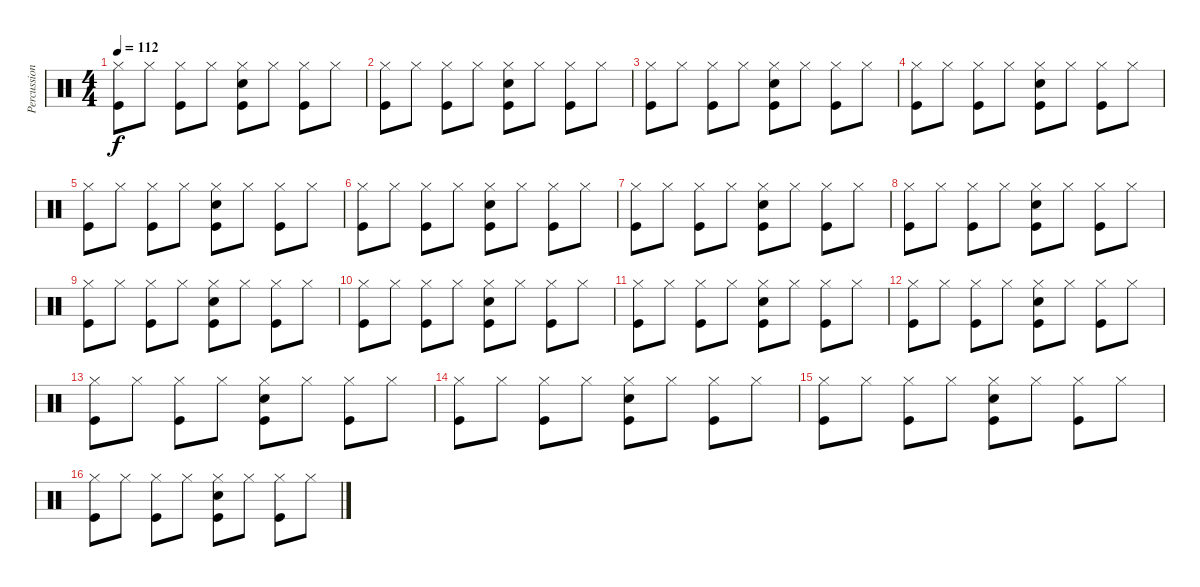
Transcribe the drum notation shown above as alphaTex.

\track ("Percussions" "Percussion") {instrument percussion}
\staff {score}
\articulation defaults
\ts (4 4)
\tempo 112
\clef neutral
\ks c
("Hi-Hat (closed)" "Kick (hit)").8{dy f} "Hi-Hat (closed)".8 ("Hi-Hat (closed)" "Kick (hit)").8 "Hi-Hat (closed)".8 ("Hi-Hat (closed)" "Snare (hit) 2" "Kick (hit)").8 "Hi-Hat (closed)".8 ("Hi-Hat (closed)" "Kick (hit)").8 "Hi-Hat (closed)".8 |
("Hi-Hat (closed)" "Kick (hit)").8 "Hi-Hat (closed)".8 ("Hi-Hat (closed)" "Kick (hit)").8 "Hi-Hat (closed)".8 ("Hi-Hat (closed)" "Snare (hit) 2" "Kick (hit)").8 "Hi-Hat (closed)".8 ("Hi-Hat (closed)" "Kick (hit)").8 "Hi-Hat (closed)".8 |
("Hi-Hat (closed)" "Kick (hit)").8 "Hi-Hat (closed)".8 ("Hi-Hat (closed)" "Kick (hit)").8 "Hi-Hat (closed)".8 ("Hi-Hat (closed)" "Snare (hit) 2" "Kick (hit)").8 "Hi-Hat (closed)".8 ("Hi-Hat (closed)" "Kick (hit)").8 "Hi-Hat (closed)".8 |
("Hi-Hat (closed)" "Kick (hit)").8 "Hi-Hat (closed)".8 ("Hi-Hat (closed)" "Kick (hit)").8 "Hi-Hat (closed)".8 ("Hi-Hat (closed)" "Snare (hit) 2" "Kick (hit)").8 "Hi-Hat (closed)".8 ("Hi-Hat (closed)" "Kick (hit)").8 "Hi-Hat (closed)".8 |
("Hi-Hat (closed)" "Kick (hit)").8 "Hi-Hat (closed)".8 ("Hi-Hat (closed)" "Kick (hit)").8 "Hi-Hat (closed)".8 ("Hi-Hat (closed)" "Snare (hit) 2" "Kick (hit)").8 "Hi-Hat (closed)".8 ("Hi-Hat (closed)" "Kick (hit)").8 "Hi-Hat (closed)".8 |
("Hi-Hat (closed)" "Kick (hit)").8 "Hi-Hat (closed)".8 ("Hi-Hat (closed)" "Kick (hit)").8 "Hi-Hat (closed)".8 ("Hi-Hat (closed)" "Snare (hit) 2" "Kick (hit)").8 "Hi-Hat (closed)".8 ("Hi-Hat (closed)" "Kick (hit)").8 "Hi-Hat (closed)".8 |
("Hi-Hat (closed)" "Kick (hit)").8 "Hi-Hat (closed)".8 ("Hi-Hat (closed)" "Kick (hit)").8 "Hi-Hat (closed)".8 ("Hi-Hat (closed)" "Snare (hit) 2" "Kick (hit)").8 "Hi-Hat (closed)".8 ("Hi-Hat (closed)" "Kick (hit)").8 "Hi-Hat (closed)".8 |
("Hi-Hat (closed)" "Kick (hit)").8 "Hi-Hat (closed)".8 ("Hi-Hat (closed)" "Kick (hit)").8 "Hi-Hat (closed)".8 ("Hi-Hat (closed)" "Snare (hit) 2" "Kick (hit)").8 "Hi-Hat (closed)".8 ("Hi-Hat (closed)" "Kick (hit)").8 "Hi-Hat (closed)".8 |
("Hi-Hat (closed)" "Kick (hit)").8 "Hi-Hat (closed)".8 ("Hi-Hat (closed)" "Kick (hit)").8 "Hi-Hat (closed)".8 ("Hi-Hat (closed)" "Snare (hit) 2" "Kick (hit)").8 "Hi-Hat (closed)".8 ("Hi-Hat (closed)" "Kick (hit)").8 "Hi-Hat (closed)".8 |
("Hi-Hat (closed)" "Kick (hit)").8 "Hi-Hat (closed)".8 ("Hi-Hat (closed)" "Kick (hit)").8 "Hi-Hat (closed)".8 ("Hi-Hat (closed)" "Snare (hit) 2" "Kick (hit)").8 "Hi-Hat (closed)".8 ("Hi-Hat (closed)" "Kick (hit)").8 "Hi-Hat (closed)".8 |
("Hi-Hat (closed)" "Kick (hit)").8 "Hi-Hat (closed)".8 ("Hi-Hat (closed)" "Kick (hit)").8 "Hi-Hat (closed)".8 ("Hi-Hat (closed)" "Snare (hit) 2" "Kick (hit)").8 "Hi-Hat (closed)".8 ("Hi-Hat (closed)" "Kick (hit)").8 "Hi-Hat (closed)".8 |
("Hi-Hat (closed)" "Kick (hit)").8 "Hi-Hat (closed)".8 ("Hi-Hat (closed)" "Kick (hit)").8 "Hi-Hat (closed)".8 ("Hi-Hat (closed)" "Snare (hit) 2" "Kick (hit)").8 "Hi-Hat (closed)".8 ("Hi-Hat (closed)" "Kick (hit)").8 "Hi-Hat (closed)".8 |
("Hi-Hat (closed)" "Kick (hit)").8 "Hi-Hat (closed)".8 ("Hi-Hat (closed)" "Kick (hit)").8 "Hi-Hat (closed)".8 ("Hi-Hat (closed)" "Snare (hit) 2" "Kick (hit)").8 "Hi-Hat (closed)".8 ("Hi-Hat (closed)" "Kick (hit)").8 "Hi-Hat (closed)".8 |
("Hi-Hat (closed)" "Kick (hit)").8 "Hi-Hat (closed)".8 ("Hi-Hat (closed)" "Kick (hit)").8 "Hi-Hat (closed)".8 ("Hi-Hat (closed)" "Snare (hit) 2" "Kick (hit)").8 "Hi-Hat (closed)".8 ("Hi-Hat (closed)" "Kick (hit)").8 "Hi-Hat (closed)".8 |
("Hi-Hat (closed)" "Kick (hit)").8 "Hi-Hat (closed)".8 ("Hi-Hat (closed)" "Kick (hit)").8 "Hi-Hat (closed)".8 ("Hi-Hat (closed)" "Snare (hit) 2" "Kick (hit)").8 "Hi-Hat (closed)".8 ("Hi-Hat (closed)" "Kick (hit)").8 "Hi-Hat (closed)".8 |
("Hi-Hat (closed)" "Kick (hit)").8 "Hi-Hat (closed)".8 ("Hi-Hat (closed)" "Kick (hit)").8 "Hi-Hat (closed)".8 ("Hi-Hat (closed)" "Snare (hit) 2" "Kick (hit)").8 "Hi-Hat (closed)".8 ("Hi-Hat (closed)" "Kick (hit)").8 "Hi-Hat (closed)".8
